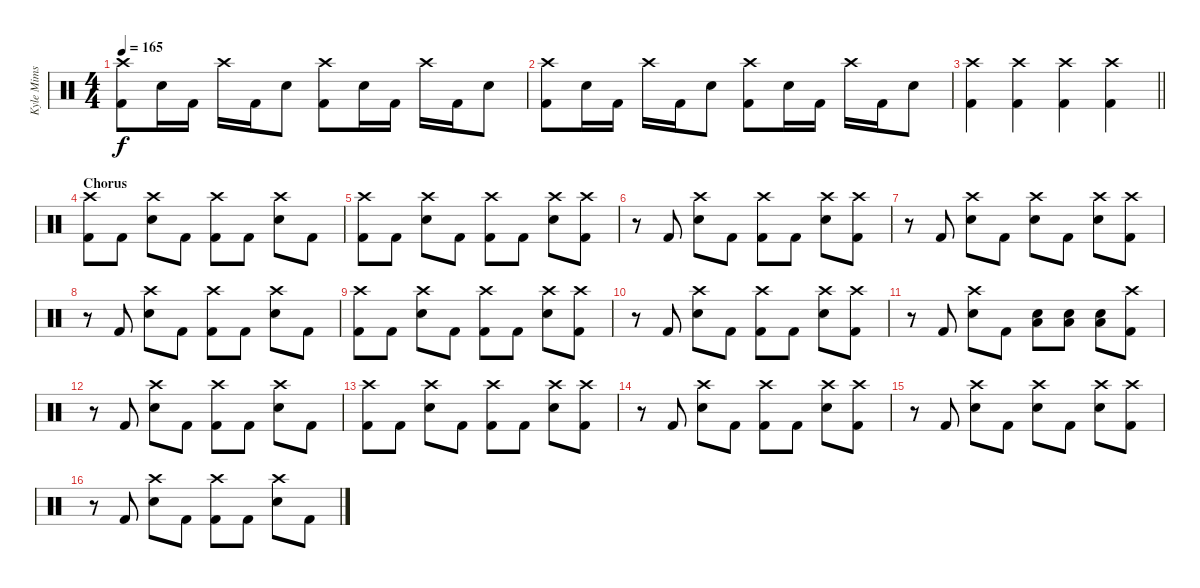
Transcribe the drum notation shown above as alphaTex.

\track ("Kyle Mims" "Kyle Mims") {instrument percussion}
\staff {score}
\articulation defaults
\ts (4 4)
\tempo 165
\clef neutral
\ks c
("Crash high (hit)" "Kick (hit) 2").8{dy f} "Electric Snare (hit)".16 "Kick (hit) 2".16 "Crash high (hit)".16 "Kick (hit) 2".16 "Electric Snare (hit)".8 ("Crash high (hit)" "Kick (hit) 2").8 "Electric Snare (hit)".16 "Kick (hit) 2".16 "Crash high (hit)".16 "Kick (hit) 2".16 "Electric Snare (hit)".8 |
("Crash high (hit)" "Kick (hit) 2").8 "Electric Snare (hit)".16 "Kick (hit) 2".16 "Crash high (hit)".16 "Kick (hit) 2".16 "Electric Snare (hit)".8 ("Crash high (hit)" "Kick (hit) 2").8 "Electric Snare (hit)".16 "Kick (hit) 2".16 "Crash high (hit)".16 "Kick (hit) 2".16 "Electric Snare (hit)".8 |
\barLineRight lightlight
("Crash high (hit)" "Kick (hit) 2").4 ("Crash high (hit)" "Kick (hit) 2").4 ("Crash high (hit)" "Kick (hit) 2").4 ("Crash high (hit)" "Kick (hit) 2").4 |
\section ("" "Chorus")
("Crash high (hit)" "Kick (hit) 2").8 "Kick (hit) 2".8 ("Crash high (hit)" "Electric Snare (hit)").8 "Kick (hit) 2".8 ("Crash high (hit)" "Kick (hit) 2").8 "Kick (hit) 2".8 ("Crash high (hit)" "Electric Snare (hit)").8 "Kick (hit) 2".8 |
("Crash high (hit)" "Kick (hit) 2").8 "Kick (hit) 2".8 ("Crash high (hit)" "Electric Snare (hit)").8 "Kick (hit) 2".8 ("Crash high (hit)" "Kick (hit) 2").8 "Kick (hit) 2".8 ("Crash high (hit)" "Electric Snare (hit)").8 ("Crash high (hit)" "Kick (hit) 2").8 |
r.8 "Kick (hit) 2".8 ("Crash high (hit)" "Electric Snare (hit)").8 "Kick (hit) 2".8 ("Crash high (hit)" "Kick (hit) 2").8 "Kick (hit) 2".8 ("Crash high (hit)" "Electric Snare (hit)").8 ("Crash high (hit)" "Kick (hit) 2").8 |
r.8 "Kick (hit) 2".8 ("Crash high (hit)" "Electric Snare (hit)").8 "Kick (hit) 2".8 ("Crash high (hit)" "Electric Snare (hit)").8 "Kick (hit) 2".8 ("Crash high (hit)" "Electric Snare (hit)").8 ("Crash high (hit)" "Kick (hit) 2").8 |
r.8 "Kick (hit) 2".8 ("Crash high (hit)" "Electric Snare (hit)").8 "Kick (hit) 2".8 ("Crash high (hit)" "Kick (hit) 2").8 "Kick (hit) 2".8 ("Crash high (hit)" "Electric Snare (hit)").8 "Kick (hit) 2".8 |
("Crash high (hit)" "Kick (hit) 2").8 "Kick (hit) 2".8 ("Crash high (hit)" "Electric Snare (hit)").8 "Kick (hit) 2".8 ("Crash high (hit)" "Kick (hit) 2").8 "Kick (hit) 2".8 ("Crash high (hit)" "Electric Snare (hit)").8 ("Crash high (hit)" "Kick (hit) 2").8 |
r.8 "Kick (hit) 2".8 ("Crash high (hit)" "Electric Snare (hit)").8 "Kick (hit) 2".8 ("Crash high (hit)" "Kick (hit) 2").8 "Kick (hit) 2".8 ("Crash high (hit)" "Electric Snare (hit)").8 ("Crash high (hit)" "Kick (hit) 2").8 |
r.8 "Kick (hit) 2".8 ("Crash high (hit)" "Electric Snare (hit)").8 "Kick (hit) 2".8 ("Electric Snare (hit)" "Low Tom (hit)").8 ("Electric Snare (hit)" "Low Tom (hit)").8 ("Electric Snare (hit)" "Low Tom (hit)").8 ("Crash high (hit)" "Kick (hit) 2").8 |
r.8 "Kick (hit) 2".8 ("Crash high (hit)" "Electric Snare (hit)").8 "Kick (hit) 2".8 ("Crash high (hit)" "Kick (hit) 2").8 "Kick (hit) 2".8 ("Crash high (hit)" "Electric Snare (hit)").8 "Kick (hit) 2".8 |
("Crash high (hit)" "Kick (hit) 2").8 "Kick (hit) 2".8 ("Crash high (hit)" "Electric Snare (hit)").8 "Kick (hit) 2".8 ("Crash high (hit)" "Kick (hit) 2").8 "Kick (hit) 2".8 ("Crash high (hit)" "Electric Snare (hit)").8 ("Crash high (hit)" "Kick (hit) 2").8 |
r.8 "Kick (hit) 2".8 ("Crash high (hit)" "Electric Snare (hit)").8 "Kick (hit) 2".8 ("Crash high (hit)" "Kick (hit) 2").8 "Kick (hit) 2".8 ("Crash high (hit)" "Electric Snare (hit)").8 ("Crash high (hit)" "Kick (hit) 2").8 |
r.8 "Kick (hit) 2".8 ("Crash high (hit)" "Electric Snare (hit)").8 "Kick (hit) 2".8 ("Crash high (hit)" "Electric Snare (hit)").8 "Kick (hit) 2".8 ("Crash high (hit)" "Electric Snare (hit)").8 ("Crash high (hit)" "Kick (hit) 2").8 |
r.8 "Kick (hit) 2".8 ("Crash high (hit)" "Electric Snare (hit)").8 "Kick (hit) 2".8 ("Crash high (hit)" "Kick (hit) 2").8 "Kick (hit) 2".8 ("Crash high (hit)" "Electric Snare (hit)").8 "Kick (hit) 2".8
